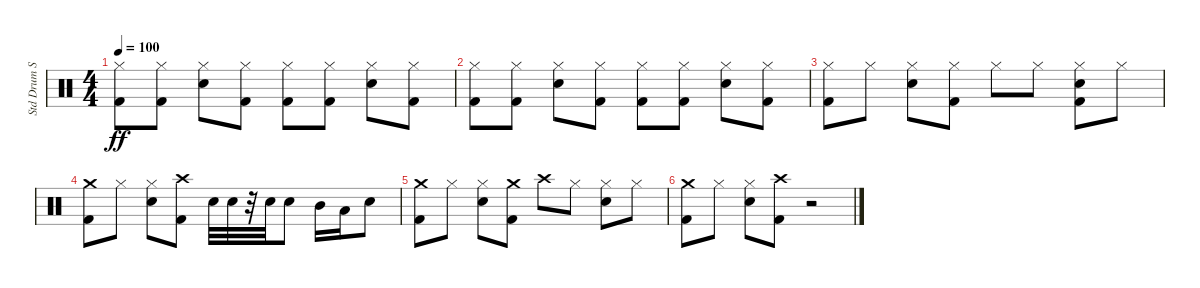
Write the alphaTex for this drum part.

\track ("Std Drum Set" "Std Drum S") {instrument percussion}
\staff {score}
\articulation defaults
\ts (4 4)
\tempo 100
\clef neutral
\ks c
("Hi-Hat (closed)" "Kick (hit) 2").8{dy ff} ("Hi-Hat (closed)" "Kick (hit) 2").8 ("Snare (hit) 2" "Hi-Hat (closed)").8 ("Hi-Hat (closed)" "Kick (hit) 2").8 ("Hi-Hat (closed)" "Kick (hit) 2").8 ("Hi-Hat (closed)" "Kick (hit) 2").8 ("Snare (hit) 2" "Hi-Hat (closed)").8 ("Hi-Hat (closed)" "Kick (hit) 2").8 |
("Hi-Hat (closed)" "Kick (hit) 2").8 ("Hi-Hat (closed)" "Kick (hit) 2").8 ("Hi-Hat (closed)" "Snare (hit) 2").8 ("Hi-Hat (closed)" "Kick (hit) 2").8 ("Kick (hit) 2" "Hi-Hat (closed)").8 ("Kick (hit) 2" "Hi-Hat (closed)").8 ("Hi-Hat (closed)" "Snare (hit) 2").8 ("Hi-Hat (closed)" "Kick (hit) 2").8 |
("Hi-Hat (closed)" "Kick (hit) 2").8 "Hi-Hat (closed)".8 ("Snare (hit) 2" "Hi-Hat (closed)").8 ("Hi-Hat (closed)" "Kick (hit) 2").8 "Hi-Hat (closed)".8 "Hi-Hat (closed)".8 ("Hi-Hat (closed)" "Snare (hit) 2" "Kick (hit) 2").8 "Hi-Hat (closed)".8 |
("Crash medium (hit)" "Kick (hit) 2").8 "Hi-Hat (closed)".8 ("Hi-Hat (closed)" "Snare (hit) 2").8 ("Crash high (hit)" "Kick (hit) 2").8 "Snare (hit) 2".32 "Snare (hit) 2".32 r.32 "Snare (hit) 2".32 "Snare (hit) 2".8 "Mid Tom (hit)".16 "Low Floor Tom (hit)".16 "Snare (hit) 2".8 |
("Crash medium (hit)" "Kick (hit) 2").8 "Hi-Hat (closed)".8 ("Snare (hit) 2" "Hi-Hat (closed)").8 ("Crash medium (hit)" "Kick (hit) 2").8 "Crash high (hit)".8 "Hi-Hat (closed)".8 ("Hi-Hat (closed)" "Snare (hit) 2").8 "Hi-Hat (closed)".8 |
("Kick (hit) 2" "Crash medium (hit)").8 "Hi-Hat (closed)".8 ("Snare (hit) 2" "Hi-Hat (closed)").8 ("Crash high (hit)" "Kick (hit) 2").8 r.2
